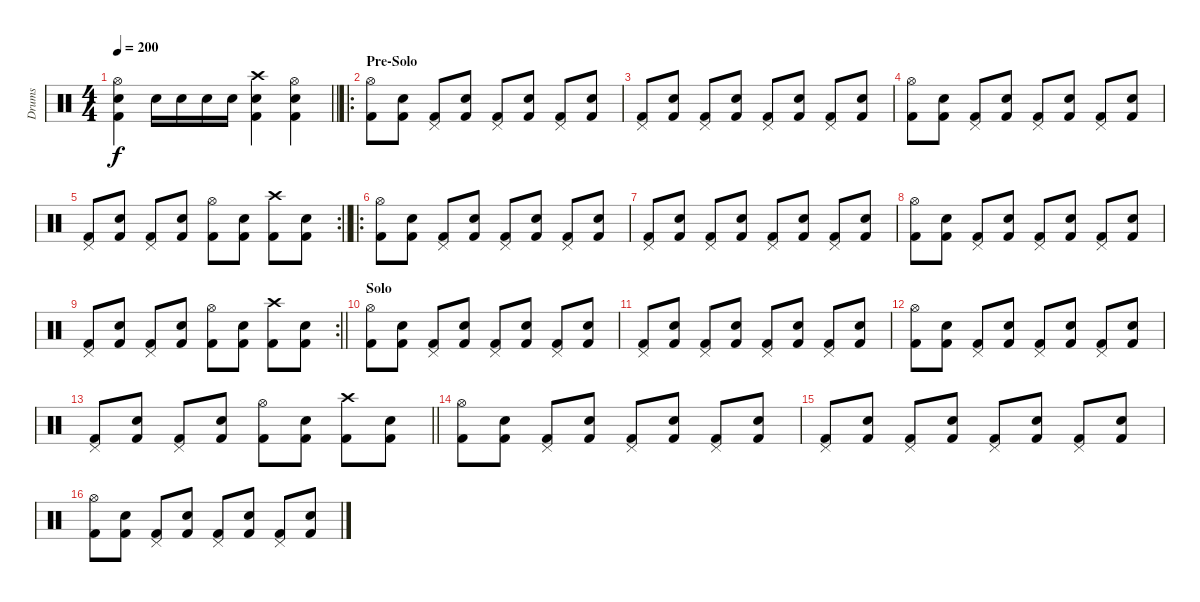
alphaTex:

\track ("Drums" "Drums") {instrument percussion}
\staff {score}
\articulation defaults
\ts (4 4)
\tempo 200
\clef neutral
\barLineRight lightlight
\ks c
("Hi-Hat (open)" "Snare (hit) 2" "Kick (hit) 2").4{dy f} "Snare (hit) 2".16 "Snare (hit) 2".16 "Snare (hit) 2".16 "Snare (hit) 2".16 ("Crash high (hit)" "Snare (hit) 2" "Kick (hit) 2").4 ("Hi-Hat (open)" "Snare (hit) 2" "Kick (hit) 2").4 |
\ro
\section ("" "Pre-Solo")
("Hi-Hat (open)" "Kick (hit) 2").8 ("Snare (hit) 2" "Kick (hit) 2").8 ("Pedal Hi-Hat (hit)" "Kick (hit) 2").8 ("Snare (hit) 2" "Kick (hit) 2").8 ("Pedal Hi-Hat (hit)" "Kick (hit) 2").8 ("Snare (hit) 2" "Kick (hit) 2").8 ("Pedal Hi-Hat (hit)" "Kick (hit) 2").8 ("Snare (hit) 2" "Kick (hit) 2").8 |
("Pedal Hi-Hat (hit)" "Kick (hit) 2").8 ("Snare (hit) 2" "Kick (hit) 2").8 ("Pedal Hi-Hat (hit)" "Kick (hit) 2").8 ("Snare (hit) 2" "Kick (hit) 2").8 ("Pedal Hi-Hat (hit)" "Kick (hit) 2").8 ("Snare (hit) 2" "Kick (hit) 2").8 ("Pedal Hi-Hat (hit)" "Kick (hit) 2").8 ("Snare (hit) 2" "Kick (hit) 2").8 |
("Hi-Hat (open)" "Kick (hit) 2").8 ("Snare (hit) 2" "Kick (hit) 2").8 ("Pedal Hi-Hat (hit)" "Kick (hit) 2").8 ("Snare (hit) 2" "Kick (hit) 2").8 ("Pedal Hi-Hat (hit)" "Kick (hit) 2").8 ("Snare (hit) 2" "Kick (hit) 2").8 ("Pedal Hi-Hat (hit)" "Kick (hit) 2").8 ("Snare (hit) 2" "Kick (hit) 2").8 |
\rc 2
\barLineRight lightlight
("Pedal Hi-Hat (hit)" "Kick (hit) 2").8 ("Snare (hit) 2" "Kick (hit) 2").8 ("Pedal Hi-Hat (hit)" "Kick (hit) 2").8 ("Snare (hit) 2" "Kick (hit) 2").8 ("Hi-Hat (open)" "Kick (hit) 2").8 ("Snare (hit) 2" "Kick (hit) 2").8 ("Crash high (hit)" "Kick (hit) 2").8 ("Snare (hit) 2" "Kick (hit) 2").8 |
\ro
("Hi-Hat (open)" "Kick (hit) 2").8 ("Snare (hit) 2" "Kick (hit) 2").8 ("Pedal Hi-Hat (hit)" "Kick (hit) 2").8 ("Snare (hit) 2" "Kick (hit) 2").8 ("Pedal Hi-Hat (hit)" "Kick (hit) 2").8 ("Snare (hit) 2" "Kick (hit) 2").8 ("Pedal Hi-Hat (hit)" "Kick (hit) 2").8 ("Snare (hit) 2" "Kick (hit) 2").8 |
("Pedal Hi-Hat (hit)" "Kick (hit) 2").8 ("Snare (hit) 2" "Kick (hit) 2").8 ("Pedal Hi-Hat (hit)" "Kick (hit) 2").8 ("Snare (hit) 2" "Kick (hit) 2").8 ("Pedal Hi-Hat (hit)" "Kick (hit) 2").8 ("Snare (hit) 2" "Kick (hit) 2").8 ("Pedal Hi-Hat (hit)" "Kick (hit) 2").8 ("Snare (hit) 2" "Kick (hit) 2").8 |
("Hi-Hat (open)" "Kick (hit) 2").8 ("Snare (hit) 2" "Kick (hit) 2").8 ("Pedal Hi-Hat (hit)" "Kick (hit) 2").8 ("Snare (hit) 2" "Kick (hit) 2").8 ("Pedal Hi-Hat (hit)" "Kick (hit) 2").8 ("Snare (hit) 2" "Kick (hit) 2").8 ("Pedal Hi-Hat (hit)" "Kick (hit) 2").8 ("Snare (hit) 2" "Kick (hit) 2").8 |
\rc 2
\barLineRight lightlight
("Pedal Hi-Hat (hit)" "Kick (hit) 2").8 ("Snare (hit) 2" "Kick (hit) 2").8 ("Pedal Hi-Hat (hit)" "Kick (hit) 2").8 ("Snare (hit) 2" "Kick (hit) 2").8 ("Hi-Hat (open)" "Kick (hit) 2").8 ("Snare (hit) 2" "Kick (hit) 2").8 ("Crash high (hit)" "Kick (hit) 2").8 ("Snare (hit) 2" "Kick (hit) 2").8 |
\section ("" "Solo")
("Hi-Hat (open)" "Kick (hit) 2").8 ("Snare (hit) 2" "Kick (hit) 2").8 ("Pedal Hi-Hat (hit)" "Kick (hit) 2").8 ("Snare (hit) 2" "Kick (hit) 2").8 ("Pedal Hi-Hat (hit)" "Kick (hit) 2").8 ("Snare (hit) 2" "Kick (hit) 2").8 ("Pedal Hi-Hat (hit)" "Kick (hit) 2").8 ("Snare (hit) 2" "Kick (hit) 2").8 |
("Pedal Hi-Hat (hit)" "Kick (hit) 2").8 ("Snare (hit) 2" "Kick (hit) 2").8 ("Pedal Hi-Hat (hit)" "Kick (hit) 2").8 ("Snare (hit) 2" "Kick (hit) 2").8 ("Pedal Hi-Hat (hit)" "Kick (hit) 2").8 ("Snare (hit) 2" "Kick (hit) 2").8 ("Pedal Hi-Hat (hit)" "Kick (hit) 2").8 ("Snare (hit) 2" "Kick (hit) 2").8 |
("Hi-Hat (open)" "Kick (hit) 2").8 ("Snare (hit) 2" "Kick (hit) 2").8 ("Pedal Hi-Hat (hit)" "Kick (hit) 2").8 ("Snare (hit) 2" "Kick (hit) 2").8 ("Pedal Hi-Hat (hit)" "Kick (hit) 2").8 ("Snare (hit) 2" "Kick (hit) 2").8 ("Pedal Hi-Hat (hit)" "Kick (hit) 2").8 ("Snare (hit) 2" "Kick (hit) 2").8 |
\barLineRight lightlight
("Pedal Hi-Hat (hit)" "Kick (hit) 2").8 ("Snare (hit) 2" "Kick (hit) 2").8 ("Pedal Hi-Hat (hit)" "Kick (hit) 2").8 ("Snare (hit) 2" "Kick (hit) 2").8 ("Hi-Hat (open)" "Kick (hit) 2").8 ("Snare (hit) 2" "Kick (hit) 2").8 ("Crash high (hit)" "Kick (hit) 2").8 ("Snare (hit) 2" "Kick (hit) 2").8 |
("Hi-Hat (open)" "Kick (hit) 2").8 ("Snare (hit) 2" "Kick (hit) 2").8 ("Pedal Hi-Hat (hit)" "Kick (hit) 2").8 ("Snare (hit) 2" "Kick (hit) 2").8 ("Pedal Hi-Hat (hit)" "Kick (hit) 2").8 ("Snare (hit) 2" "Kick (hit) 2").8 ("Pedal Hi-Hat (hit)" "Kick (hit) 2").8 ("Snare (hit) 2" "Kick (hit) 2").8 |
("Pedal Hi-Hat (hit)" "Kick (hit) 2").8 ("Snare (hit) 2" "Kick (hit) 2").8 ("Pedal Hi-Hat (hit)" "Kick (hit) 2").8 ("Snare (hit) 2" "Kick (hit) 2").8 ("Pedal Hi-Hat (hit)" "Kick (hit) 2").8 ("Snare (hit) 2" "Kick (hit) 2").8 ("Pedal Hi-Hat (hit)" "Kick (hit) 2").8 ("Snare (hit) 2" "Kick (hit) 2").8 |
("Hi-Hat (open)" "Kick (hit) 2").8 ("Snare (hit) 2" "Kick (hit) 2").8 ("Pedal Hi-Hat (hit)" "Kick (hit) 2").8 ("Snare (hit) 2" "Kick (hit) 2").8 ("Pedal Hi-Hat (hit)" "Kick (hit) 2").8 ("Snare (hit) 2" "Kick (hit) 2").8 ("Pedal Hi-Hat (hit)" "Kick (hit) 2").8 ("Snare (hit) 2" "Kick (hit) 2").8
